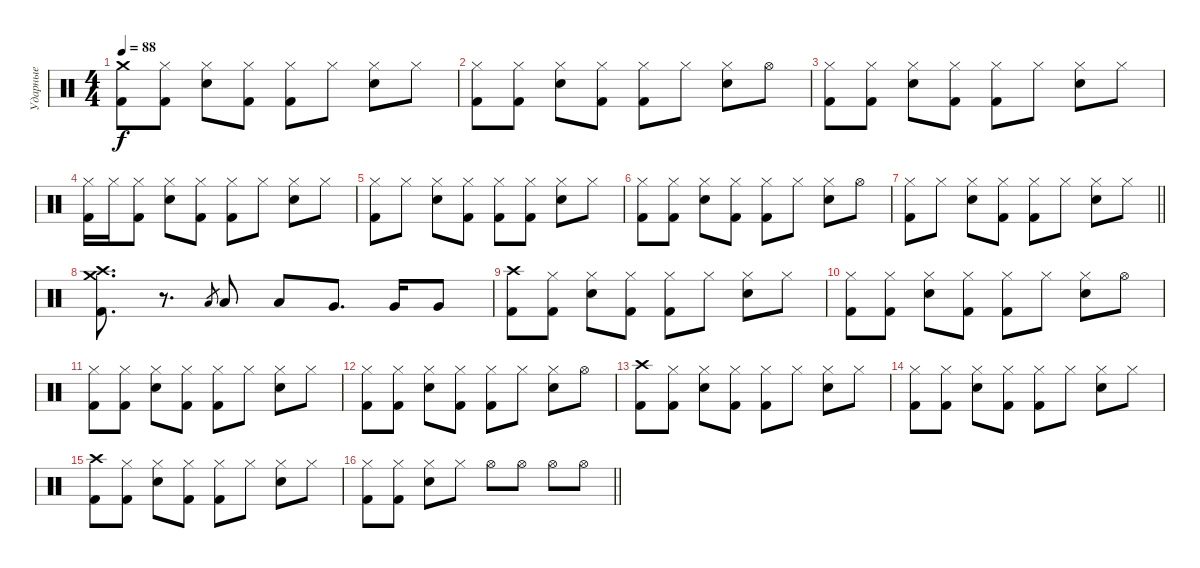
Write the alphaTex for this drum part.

\track ("Ударные" "Ударные") {instrument percussion}
\staff {score}
\articulation defaults
\ts (4 4)
\tempo 88
\clef neutral
\ks c
("Crash medium (hit)" "Kick (hit) 2").8{dy f} ("Hi-Hat (closed)" "Kick (hit) 2").8 ("Hi-Hat (closed)" "Snare (hit) 2").8 ("Hi-Hat (closed)" "Kick (hit) 2").8 ("Hi-Hat (closed)" "Kick (hit) 2").8 "Hi-Hat (closed)".8 ("Hi-Hat (closed)" "Snare (hit) 2").8 "Hi-Hat (closed)".8 |
("Hi-Hat (closed)" "Kick (hit) 2").8 ("Hi-Hat (closed)" "Kick (hit) 2").8 ("Hi-Hat (closed)" "Snare (hit) 2").8 ("Hi-Hat (closed)" "Kick (hit) 2").8 ("Hi-Hat (closed)" "Kick (hit) 2").8 "Hi-Hat (closed)".8 ("Hi-Hat (closed)" "Snare (hit) 2").8 "Hi-Hat (open)".8 |
("Hi-Hat (closed)" "Kick (hit) 2").8 ("Hi-Hat (closed)" "Kick (hit) 2").8 ("Hi-Hat (closed)" "Snare (hit) 2").8 ("Hi-Hat (closed)" "Kick (hit) 2").8 ("Hi-Hat (closed)" "Kick (hit) 2").8 "Hi-Hat (closed)".8 ("Hi-Hat (closed)" "Snare (hit) 2").8 "Hi-Hat (closed)".8 |
("Hi-Hat (closed)" "Kick (hit) 2").16 "Hi-Hat (closed)".16 ("Hi-Hat (closed)" "Kick (hit) 2").8 ("Hi-Hat (closed)" "Snare (hit) 2").8 ("Hi-Hat (closed)" "Kick (hit) 2").8 ("Hi-Hat (closed)" "Kick (hit) 2").8 "Hi-Hat (closed)".8 ("Hi-Hat (closed)" "Snare (hit) 2").8 "Hi-Hat (closed)".8 |
("Hi-Hat (closed)" "Kick (hit) 2").8 "Hi-Hat (closed)".8 ("Hi-Hat (closed)" "Snare (hit) 2").8 ("Hi-Hat (closed)" "Kick (hit) 2").8 ("Hi-Hat (closed)" "Kick (hit) 2").8 ("Hi-Hat (closed)" "Kick (hit) 2").8 ("Hi-Hat (closed)" "Snare (hit) 2").8 "Hi-Hat (closed)".8 |
("Hi-Hat (closed)" "Kick (hit) 2").8 ("Hi-Hat (closed)" "Kick (hit) 2").8 ("Hi-Hat (closed)" "Snare (hit) 2").8 ("Hi-Hat (closed)" "Kick (hit) 2").8 ("Hi-Hat (closed)" "Kick (hit) 2").8 "Hi-Hat (closed)".8 ("Hi-Hat (closed)" "Snare (hit) 2").8 "Hi-Hat (open)".8 |
\barLineRight lightlight
("Hi-Hat (closed)" "Kick (hit) 2").8 "Hi-Hat (closed)".8 ("Hi-Hat (closed)" "Snare (hit) 2").8 ("Hi-Hat (closed)" "Kick (hit) 2").8 ("Hi-Hat (closed)" "Kick (hit) 2").8 "Hi-Hat (closed)".8 ("Hi-Hat (closed)" "Snare (hit) 2").8 "Hi-Hat (closed)".8 |
("Crash high (hit)" "Crash medium (hit)" "Kick (hit) 2").8{d} r.8{d} "Low Tom (hit)".8{gr} "Low Tom (hit)".8 "Low Tom (hit)".8 "Very Low Tom (hit)".8{d} "Very Low Tom (hit)".16 "Very Low Tom (hit)".8 |
("Crash high (hit)" "Kick (hit) 2").8 ("Hi-Hat (closed)" "Kick (hit) 2").8 ("Hi-Hat (closed)" "Snare (hit) 2").8 ("Hi-Hat (closed)" "Kick (hit) 2").8 ("Hi-Hat (closed)" "Kick (hit) 2").8 "Hi-Hat (closed)".8 ("Hi-Hat (closed)" "Snare (hit) 2").8 "Hi-Hat (closed)".8 |
("Hi-Hat (closed)" "Kick (hit) 2").8 ("Hi-Hat (closed)" "Kick (hit) 2").8 ("Hi-Hat (closed)" "Snare (hit) 2").8 ("Hi-Hat (closed)" "Kick (hit) 2").8 ("Hi-Hat (closed)" "Kick (hit) 2").8 "Hi-Hat (closed)".8 ("Hi-Hat (closed)" "Snare (hit) 2").8 "Hi-Hat (open)".8 |
("Hi-Hat (closed)" "Kick (hit) 2").8 ("Hi-Hat (closed)" "Kick (hit) 2").8 ("Hi-Hat (closed)" "Snare (hit) 2").8 ("Hi-Hat (closed)" "Kick (hit) 2").8 ("Hi-Hat (closed)" "Kick (hit) 2").8 "Hi-Hat (closed)".8 ("Hi-Hat (closed)" "Snare (hit) 2").8 "Hi-Hat (closed)".8 |
("Hi-Hat (closed)" "Kick (hit) 2").8 ("Hi-Hat (closed)" "Kick (hit) 2").8 ("Hi-Hat (closed)" "Snare (hit) 2").8 ("Hi-Hat (closed)" "Kick (hit) 2").8 ("Hi-Hat (closed)" "Kick (hit) 2").8 "Hi-Hat (closed)".8 ("Hi-Hat (closed)" "Snare (hit) 2").8 "Hi-Hat (open)".8 |
("Crash high (hit)" "Kick (hit) 2").8 ("Hi-Hat (closed)" "Kick (hit) 2").8 ("Hi-Hat (closed)" "Snare (hit) 2").8 ("Hi-Hat (closed)" "Kick (hit) 2").8 ("Hi-Hat (closed)" "Kick (hit) 2").8 "Hi-Hat (closed)".8 ("Hi-Hat (closed)" "Snare (hit) 2").8 "Hi-Hat (closed)".8 |
("Hi-Hat (closed)" "Kick (hit) 2").8 ("Hi-Hat (closed)" "Kick (hit) 2").8 ("Hi-Hat (closed)" "Snare (hit) 2").8 ("Hi-Hat (closed)" "Kick (hit) 2").8 ("Hi-Hat (closed)" "Kick (hit) 2").8 "Hi-Hat (closed)".8 ("Hi-Hat (closed)" "Snare (hit) 2").8 "Hi-Hat (closed)".8 |
("Crash high (hit)" "Kick (hit) 2").8 ("Hi-Hat (closed)" "Kick (hit) 2").8 ("Hi-Hat (closed)" "Snare (hit) 2").8 ("Hi-Hat (closed)" "Kick (hit) 2").8 ("Hi-Hat (closed)" "Kick (hit) 2").8 "Hi-Hat (closed)".8 ("Hi-Hat (closed)" "Snare (hit) 2").8 "Hi-Hat (closed)".8 |
\barLineRight lightlight
("Hi-Hat (closed)" "Kick (hit) 2").8 ("Hi-Hat (closed)" "Kick (hit) 2").8 ("Hi-Hat (closed)" "Snare (hit) 2").8 "Hi-Hat (closed)".8 "Hi-Hat (open)".8 "Hi-Hat (open)".8 "Hi-Hat (open)".8 "Hi-Hat (open)".8
